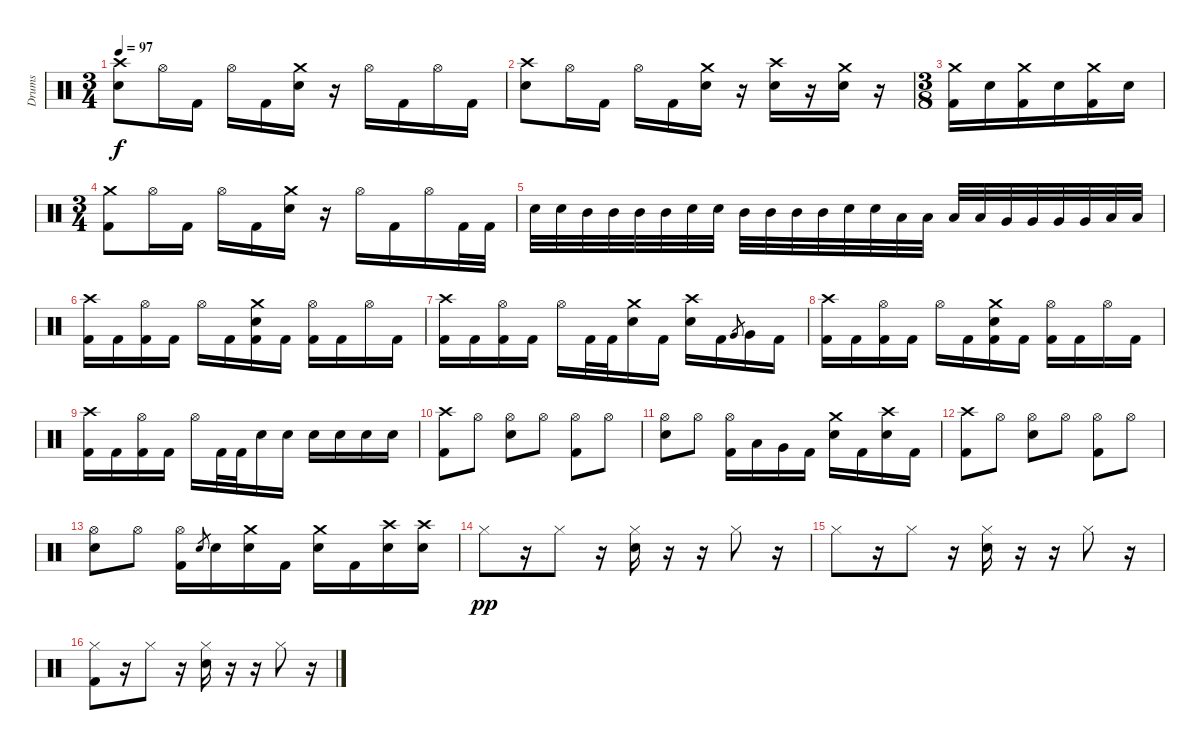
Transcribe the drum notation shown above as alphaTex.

\track ("Drums" "Drums") {instrument percussion}
\staff {score}
\articulation defaults
\ts (3 4)
\tempo 97
\clef neutral
\ks c
("Crash high (hit)" "Electric Snare (hit)").8{dy f} "Hi-Hat (open)".16 "Kick (hit) 2".16 "Hi-Hat (open)".16 "Kick (hit) 2".16 ("Crash medium (hit)" "Electric Snare (hit)").16 r.16 "Hi-Hat (open)".16 "Kick (hit) 2".16 "Hi-Hat (open)".16 "Kick (hit) 2".16 |
("Crash high (hit)" "Electric Snare (hit)").8 "Hi-Hat (open)".16 "Kick (hit) 2".16 "Hi-Hat (open)".16 "Kick (hit) 2".16 ("Crash medium (hit)" "Electric Snare (hit)").16 r.16 ("Crash high (hit)" "Electric Snare (hit)").16 r.16 ("Crash medium (hit)" "Electric Snare (hit)").16 r.16 |
\ts (3 8)
("Crash medium (hit)"{pm} "Kick (hit) 2").16 "Electric Snare (hit)".16 ("Crash medium (hit)"{pm} "Kick (hit) 2").16 "Electric Snare (hit)".16 ("Crash medium (hit)"{pm} "Kick (hit) 2").16 "Electric Snare (hit)".16 |
\ts (3 4)
("Crash medium (hit)" "Kick (hit) 2").8 "Hi-Hat (open)".16 "Kick (hit) 2".16 "Hi-Hat (open)".16 "Kick (hit) 2".16 ("Crash medium (hit)" "Electric Snare (hit)").16 r.16 "Hi-Hat (open)".16 "Kick (hit) 2".16 "Hi-Hat (open)".16 "Kick (hit) 2".32 "Kick (hit) 2".32 |
"Electric Snare (hit)".32 "Electric Snare (hit)".32 "Mid Tom (hit)".32 "Mid Tom (hit)".32 "Mid Tom (hit)".32 "Mid Tom (hit)".32 "Electric Snare (hit)".32 "Electric Snare (hit)".32 "Mid Tom (hit)".32 "Mid Tom (hit)".32 "Mid Tom (hit)".32 "Mid Tom (hit)".32 "Electric Snare (hit)".32 "Electric Snare (hit)".32 "Low Tom (hit)".32 "Low Tom (hit)".32 "Low Tom (hit)".32 "Low Tom (hit)".32 "Very Low Tom (hit)".32 "Very Low Tom (hit)".32 "Very Low Tom (hit)".32 "Very Low Tom (hit)".32 "Low Floor Tom (hit)".32 "Low Floor Tom (hit)".32 |
("Crash high (hit)" "Kick (hit) 2").16 "Kick (hit) 2".16 ("Hi-Hat (open)" "Kick (hit) 2").16 "Kick (hit) 2".16 "Hi-Hat (open)".16 "Kick (hit) 2".16 ("Crash medium (hit)" "Electric Snare (hit)" "Kick (hit) 2").16 "Kick (hit) 2".16 ("Hi-Hat (open)" "Kick (hit) 2").16 "Kick (hit) 2".16 "Hi-Hat (open)".16 "Kick (hit) 2".16 |
("Crash high (hit)" "Kick (hit) 2").16 "Kick (hit) 2".16 ("Hi-Hat (open)" "Kick (hit) 2").16 "Kick (hit) 2".16 "Hi-Hat (open)".16 "Kick (hit) 2".32 "Kick (hit) 2".32 ("Crash medium (hit)" "Electric Snare (hit)").16 "Kick (hit) 2".16 ("Crash high (hit)" "Electric Snare (hit)").16 "Kick (hit) 2".16 "Very Low Tom (hit)".8{gr} "Very Low Tom (hit)".16 "Kick (hit) 2".16 |
("Crash high (hit)" "Kick (hit) 2").16 "Kick (hit) 2".16 ("Hi-Hat (open)" "Kick (hit) 2").16 "Kick (hit) 2".16 "Hi-Hat (open)".16 "Kick (hit) 2".16 ("Crash medium (hit)" "Electric Snare (hit)" "Kick (hit) 2").16 "Kick (hit) 2".16 ("Hi-Hat (open)" "Kick (hit) 2").16 "Kick (hit) 2".16 "Hi-Hat (open)".16 "Kick (hit) 2".16 |
("Crash high (hit)" "Kick (hit) 2").16 "Kick (hit) 2".16 ("Hi-Hat (open)" "Kick (hit) 2").16 "Kick (hit) 2".16 "Hi-Hat (open)".16 "Kick (hit) 2".32 "Kick (hit) 2".32 "Electric Snare (hit)".16 "Electric Snare (hit)".16 "Electric Snare (hit)".16 "Electric Snare (hit)".16 "Electric Snare (hit)".16 "Electric Snare (hit)".16 |
("Crash high (hit)" "Kick (hit) 2").8 "Hi-Hat (open)".8 ("Hi-Hat (open)" "Electric Snare (hit)").8 "Hi-Hat (open)".8 ("Hi-Hat (open)" "Kick (hit) 2").8 "Hi-Hat (open)".8 |
("Hi-Hat (open)" "Electric Snare (hit)").8 "Hi-Hat (open)".8 ("Hi-Hat (open)" "Kick (hit) 2").16 "Low Tom (hit)".16 "Very Low Tom (hit)".16 "Kick (hit) 2".16 ("Crash medium (hit)" "Electric Snare (hit)").16 "Kick (hit) 2".16 ("Crash high (hit)" "Electric Snare (hit)").16 "Kick (hit) 2".16 |
("Crash high (hit)" "Kick (hit) 2").8 "Hi-Hat (open)".8 ("Hi-Hat (open)" "Electric Snare (hit)").8 "Hi-Hat (open)".8 ("Hi-Hat (open)" "Kick (hit) 2").8 "Hi-Hat (open)".8 |
("Hi-Hat (open)" "Electric Snare (hit)").8 "Hi-Hat (open)".8 ("Hi-Hat (open)" "Kick (hit) 2").16 "Electric Snare (hit)".8{gr} "Electric Snare (hit)".16 ("Crash medium (hit)" "Electric Snare (hit)").16 "Kick (hit) 2".16 ("Crash medium (hit)" "Electric Snare (hit)").16 "Kick (hit) 2".16 ("Crash high (hit)" "Electric Snare (hit)").16 ("Crash high (hit)" "Electric Snare (hit)").16 |
"Hi-Hat (closed)".8{dy pp} r.16 "Hi-Hat (closed)".8 r.16 ("Hi-Hat (closed)" "Electric Snare (hit)").16 r.16 r.16 "Hi-Hat (closed)".8 r.16 |
"Hi-Hat (closed)".8 r.16 "Hi-Hat (closed)".8 r.16 ("Hi-Hat (closed)" "Electric Snare (hit)").16 r.16 r.16 "Hi-Hat (closed)".8 r.16 |
("Hi-Hat (closed)" "Kick (hit) 2").8 r.16 "Hi-Hat (closed)".8 r.16 ("Hi-Hat (closed)" "Electric Snare (hit)").16 r.16 r.16 "Hi-Hat (closed)".8 r.16
